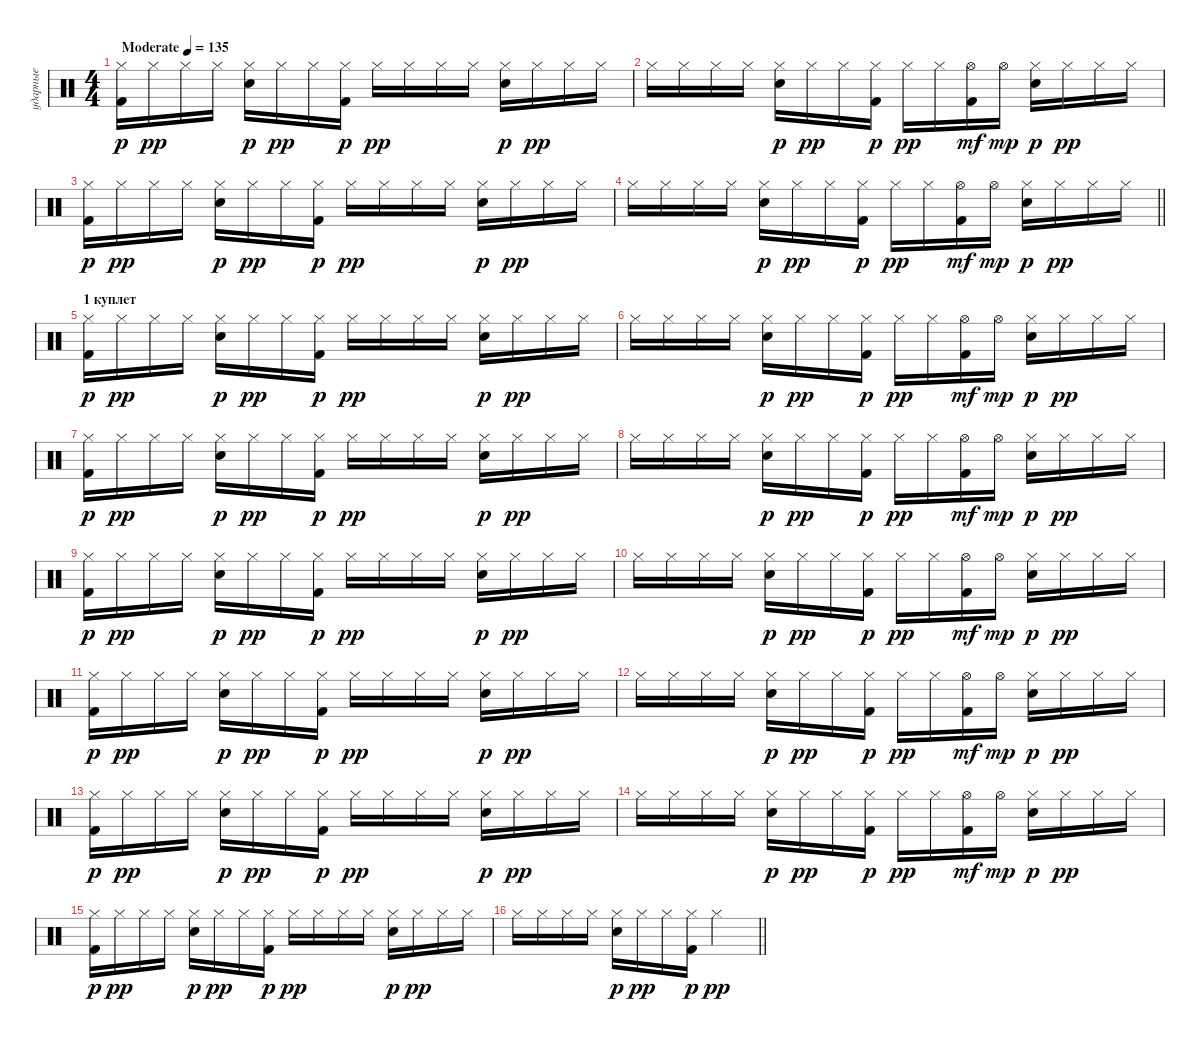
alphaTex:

\track ("ударные" "ударные") {instrument percussion}
\staff {score}
\articulation defaults
\ts (4 4)
\tempo (135 "Moderate")
\clef neutral
\ks c
("Hi-Hat (closed)" "Kick (hit) 2").16{dy p} "Hi-Hat (closed)".16{dy pp} "Hi-Hat (closed)".16 "Hi-Hat (closed)".16 ("Hi-Hat (closed)" "Electric Snare (hit)").16{dy p} "Hi-Hat (closed)".16{dy pp} "Hi-Hat (closed)".16 ("Hi-Hat (closed)" "Kick (hit) 2").16{dy p} "Hi-Hat (closed)".16{dy pp} "Hi-Hat (closed)".16 "Hi-Hat (closed)".16 "Hi-Hat (closed)".16 ("Hi-Hat (closed)" "Electric Snare (hit)").16{dy p} "Hi-Hat (closed)".16{dy pp} "Hi-Hat (closed)".16 "Hi-Hat (closed)".16 |
"Hi-Hat (closed)".16 "Hi-Hat (closed)".16 "Hi-Hat (closed)".16 "Hi-Hat (closed)".16 ("Hi-Hat (closed)" "Electric Snare (hit)").16{dy p} "Hi-Hat (closed)".16{dy pp} "Hi-Hat (closed)".16 ("Hi-Hat (closed)" "Kick (hit) 2").16{dy p} "Hi-Hat (closed)".16{dy pp} "Hi-Hat (closed)".16 ("Hi-Hat (open)" "Kick (hit) 2").16{dy mf} "Hi-Hat (open)".16{dy mp} ("Hi-Hat (closed)" "Electric Snare (hit)").16{dy p} "Hi-Hat (closed)".16{dy pp} "Hi-Hat (closed)".16 "Hi-Hat (closed)".16 |
("Hi-Hat (closed)" "Kick (hit) 2").16{dy p} "Hi-Hat (closed)".16{dy pp} "Hi-Hat (closed)".16 "Hi-Hat (closed)".16 ("Hi-Hat (closed)" "Electric Snare (hit)").16{dy p} "Hi-Hat (closed)".16{dy pp} "Hi-Hat (closed)".16 ("Hi-Hat (closed)" "Kick (hit) 2").16{dy p} "Hi-Hat (closed)".16{dy pp} "Hi-Hat (closed)".16 "Hi-Hat (closed)".16 "Hi-Hat (closed)".16 ("Hi-Hat (closed)" "Electric Snare (hit)").16{dy p} "Hi-Hat (closed)".16{dy pp} "Hi-Hat (closed)".16 "Hi-Hat (closed)".16 |
\barLineRight lightlight "Hi-Hat (closed)".16 "Hi-Hat (closed)".16 "Hi-Hat (closed)".16 "Hi-Hat (closed)".16
("Hi-Hat (closed)" "Electric Snare (hit)").16{dy p} "Hi-Hat (closed)".16{dy pp} "Hi-Hat (closed)".16 ("Hi-Hat (closed)" "Kick (hit) 2").16{dy p} "Hi-Hat (closed)".16{dy pp} "Hi-Hat (closed)".16 ("Hi-Hat (open)" "Kick (hit) 2").16{dy mf} "Hi-Hat (open)".16{dy mp} ("Hi-Hat (closed)" "Electric Snare (hit)").16{dy p} "Hi-Hat (closed)".16{dy pp} "Hi-Hat (closed)".16 "Hi-Hat (closed)".16 |
\section ("" "1 куплет")
("Hi-Hat (closed)" "Kick (hit) 2").16{dy p} "Hi-Hat (closed)".16{dy pp} "Hi-Hat (closed)".16 "Hi-Hat (closed)".16 ("Hi-Hat (closed)" "Electric Snare (hit)").16{dy p} "Hi-Hat (closed)".16{dy pp} "Hi-Hat (closed)".16 ("Hi-Hat (closed)" "Kick (hit) 2").16{dy p} "Hi-Hat (closed)".16{dy pp} "Hi-Hat (closed)".16 "Hi-Hat (closed)".16 "Hi-Hat (closed)".16 ("Hi-Hat (closed)" "Electric Snare (hit)").16{dy p} "Hi-Hat (closed)".16{dy pp} "Hi-Hat (closed)".16 "Hi-Hat (closed)".16 |
"Hi-Hat (closed)".16 "Hi-Hat (closed)".16 "Hi-Hat (closed)".16 "Hi-Hat (closed)".16 ("Hi-Hat (closed)" "Electric Snare (hit)").16{dy p} "Hi-Hat (closed)".16{dy pp} "Hi-Hat (closed)".16 ("Hi-Hat (closed)" "Kick (hit) 2").16{dy p} "Hi-Hat (closed)".16{dy pp} "Hi-Hat (closed)".16 ("Hi-Hat (open)" "Kick (hit) 2").16{dy mf} "Hi-Hat (open)".16{dy mp} ("Hi-Hat (closed)" "Electric Snare (hit)").16{dy p} "Hi-Hat (closed)".16{dy pp} "Hi-Hat (closed)".16 "Hi-Hat (closed)".16 |
("Hi-Hat (closed)" "Kick (hit) 2").16{dy p} "Hi-Hat (closed)".16{dy pp} "Hi-Hat (closed)".16 "Hi-Hat (closed)".16 ("Hi-Hat (closed)" "Electric Snare (hit)").16{dy p} "Hi-Hat (closed)".16{dy pp} "Hi-Hat (closed)".16 ("Hi-Hat (closed)" "Kick (hit) 2").16{dy p} "Hi-Hat (closed)".16{dy pp} "Hi-Hat (closed)".16 "Hi-Hat (closed)".16 "Hi-Hat (closed)".16 ("Hi-Hat (closed)" "Electric Snare (hit)").16{dy p} "Hi-Hat (closed)".16{dy pp} "Hi-Hat (closed)".16 "Hi-Hat (closed)".16 |
"Hi-Hat (closed)".16 "Hi-Hat (closed)".16 "Hi-Hat (closed)".16 "Hi-Hat (closed)".16 ("Hi-Hat (closed)" "Electric Snare (hit)").16{dy p} "Hi-Hat (closed)".16{dy pp} "Hi-Hat (closed)".16 ("Hi-Hat (closed)" "Kick (hit) 2").16{dy p} "Hi-Hat (closed)".16{dy pp} "Hi-Hat (closed)".16 ("Hi-Hat (open)" "Kick (hit) 2").16{dy mf} "Hi-Hat (open)".16{dy mp} ("Hi-Hat (closed)" "Electric Snare (hit)").16{dy p} "Hi-Hat (closed)".16{dy pp} "Hi-Hat (closed)".16 "Hi-Hat (closed)".16 |
("Hi-Hat (closed)" "Kick (hit) 2").16{dy p} "Hi-Hat (closed)".16{dy pp} "Hi-Hat (closed)".16 "Hi-Hat (closed)".16 ("Hi-Hat (closed)" "Electric Snare (hit)").16{dy p} "Hi-Hat (closed)".16{dy pp} "Hi-Hat (closed)".16 ("Hi-Hat (closed)" "Kick (hit) 2").16{dy p} "Hi-Hat (closed)".16{dy pp} "Hi-Hat (closed)".16 "Hi-Hat (closed)".16 "Hi-Hat (closed)".16 ("Hi-Hat (closed)" "Electric Snare (hit)").16{dy p} "Hi-Hat (closed)".16{dy pp} "Hi-Hat (closed)".16 "Hi-Hat (closed)".16 |
"Hi-Hat (closed)".16 "Hi-Hat (closed)".16 "Hi-Hat (closed)".16 "Hi-Hat (closed)".16 ("Hi-Hat (closed)" "Electric Snare (hit)").16{dy p} "Hi-Hat (closed)".16{dy pp} "Hi-Hat (closed)".16 ("Hi-Hat (closed)" "Kick (hit) 2").16{dy p} "Hi-Hat (closed)".16{dy pp} "Hi-Hat (closed)".16 ("Hi-Hat (open)" "Kick (hit) 2").16{dy mf} "Hi-Hat (open)".16{dy mp} ("Hi-Hat (closed)" "Electric Snare (hit)").16{dy p} "Hi-Hat (closed)".16{dy pp} "Hi-Hat (closed)".16 "Hi-Hat (closed)".16 |
("Hi-Hat (closed)" "Kick (hit) 2").16{dy p} "Hi-Hat (closed)".16{dy pp} "Hi-Hat (closed)".16 "Hi-Hat (closed)".16 ("Hi-Hat (closed)" "Electric Snare (hit)").16{dy p} "Hi-Hat (closed)".16{dy pp} "Hi-Hat (closed)".16 ("Hi-Hat (closed)" "Kick (hit) 2").16{dy p} "Hi-Hat (closed)".16{dy pp} "Hi-Hat (closed)".16 "Hi-Hat (closed)".16 "Hi-Hat (closed)".16 ("Hi-Hat (closed)" "Electric Snare (hit)").16{dy p} "Hi-Hat (closed)".16{dy pp} "Hi-Hat (closed)".16 "Hi-Hat (closed)".16 |
"Hi-Hat (closed)".16 "Hi-Hat (closed)".16 "Hi-Hat (closed)".16 "Hi-Hat (closed)".16 ("Hi-Hat (closed)" "Electric Snare (hit)").16{dy p} "Hi-Hat (closed)".16{dy pp} "Hi-Hat (closed)".16 ("Hi-Hat (closed)" "Kick (hit) 2").16{dy p} "Hi-Hat (closed)".16{dy pp} "Hi-Hat (closed)".16 ("Hi-Hat (open)" "Kick (hit) 2").16{dy mf} "Hi-Hat (open)".16{dy mp} ("Hi-Hat (closed)" "Electric Snare (hit)").16{dy p} "Hi-Hat (closed)".16{dy pp} "Hi-Hat (closed)".16 "Hi-Hat (closed)".16 |
("Hi-Hat (closed)" "Kick (hit) 2").16{dy p} "Hi-Hat (closed)".16{dy pp} "Hi-Hat (closed)".16 "Hi-Hat (closed)".16 ("Hi-Hat (closed)" "Electric Snare (hit)").16{dy p} "Hi-Hat (closed)".16{dy pp} "Hi-Hat (closed)".16 ("Hi-Hat (closed)" "Kick (hit) 2").16{dy p} "Hi-Hat (closed)".16{dy pp} "Hi-Hat (closed)".16 "Hi-Hat (closed)".16 "Hi-Hat (closed)".16 ("Hi-Hat (closed)" "Electric Snare (hit)").16{dy p} "Hi-Hat (closed)".16{dy pp} "Hi-Hat (closed)".16 "Hi-Hat (closed)".16 |
"Hi-Hat (closed)".16 "Hi-Hat (closed)".16 "Hi-Hat (closed)".16 "Hi-Hat (closed)".16 ("Hi-Hat (closed)" "Electric Snare (hit)").16{dy p} "Hi-Hat (closed)".16{dy pp} "Hi-Hat (closed)".16 ("Hi-Hat (closed)" "Kick (hit) 2").16{dy p} "Hi-Hat (closed)".16{dy pp} "Hi-Hat (closed)".16 ("Hi-Hat (open)" "Kick (hit) 2").16{dy mf} "Hi-Hat (open)".16{dy mp} ("Hi-Hat (closed)" "Electric Snare (hit)").16{dy p} "Hi-Hat (closed)".16{dy pp} "Hi-Hat (closed)".16 "Hi-Hat (closed)".16 |
("Hi-Hat (closed)" "Kick (hit) 2").16{dy p} "Hi-Hat (closed)".16{dy pp} "Hi-Hat (closed)".16 "Hi-Hat (closed)".16 ("Hi-Hat (closed)" "Electric Snare (hit)").16{dy p} "Hi-Hat (closed)".16{dy pp} "Hi-Hat (closed)".16 ("Hi-Hat (closed)" "Kick (hit) 2").16{dy p} "Hi-Hat (closed)".16{dy pp} "Hi-Hat (closed)".16 "Hi-Hat (closed)".16 "Hi-Hat (closed)".16 ("Hi-Hat (closed)" "Electric Snare (hit)").16{dy p} "Hi-Hat (closed)".16{dy pp} "Hi-Hat (closed)".16 "Hi-Hat (closed)".16 |
\barLineRight lightlight "Hi-Hat (closed)".16 "Hi-Hat (closed)".16 "Hi-Hat (closed)".16 "Hi-Hat (closed)".16
("Hi-Hat (closed)" "Electric Snare (hit)").16{dy p} "Hi-Hat (closed)".16{dy pp} "Hi-Hat (closed)".16 ("Hi-Hat (closed)" "Kick (hit) 2").16{dy p} "Hi-Hat (closed)".2{dy pp}
